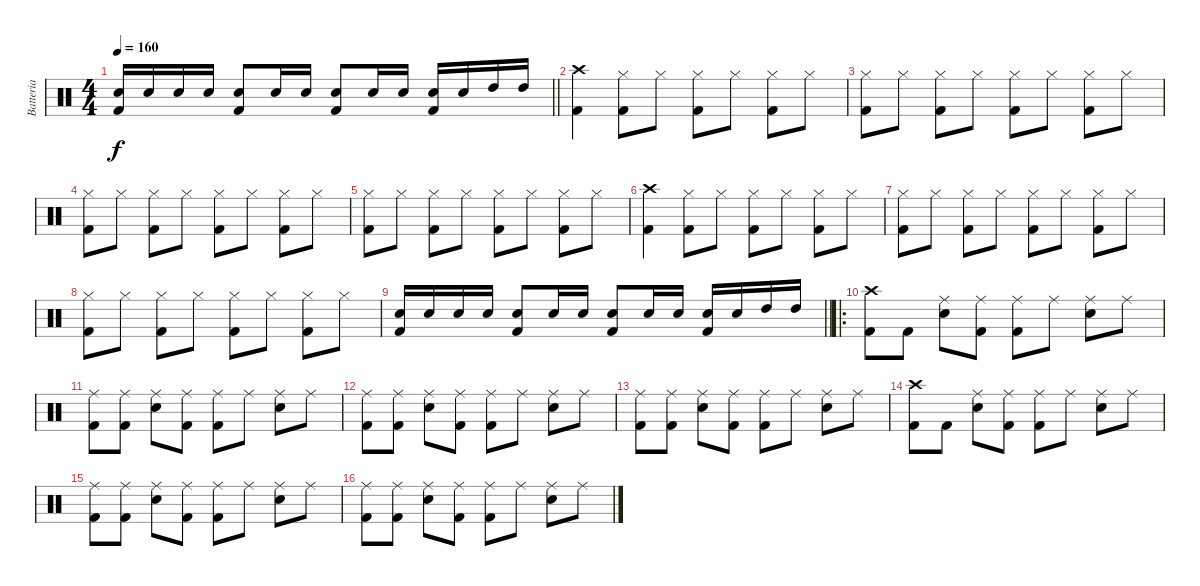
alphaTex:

\track ("Batteria" "Batteria") {instrument percussion}
\staff {score}
\articulation defaults
\ts (4 4)
\tempo 160
\clef neutral
\barLineRight lightlight
\ks c
("Electric Snare (hit)" "Kick (hit) 2").16{dy f} "Electric Snare (hit)".16 "Electric Snare (hit)".16 "Electric Snare (hit)".16 ("Electric Snare (hit)" "Kick (hit) 2").8 "Electric Snare (hit)".16 "Electric Snare (hit)".16 ("Electric Snare (hit)" "Kick (hit) 2").8 "Electric Snare (hit)".16 "Electric Snare (hit)".16 ("Electric Snare (hit)" "Kick (hit) 2").16 "Electric Snare (hit)".16 "High Tom (hit)".16 "High Tom (hit)".16 |
("Crash high (hit)" "Kick (hit) 2").4 ("Hi-Hat (closed)" "Kick (hit) 2").8 "Hi-Hat (closed)".8 ("Hi-Hat (closed)" "Kick (hit) 2").8 "Hi-Hat (closed)".8 ("Hi-Hat (closed)" "Kick (hit) 2").8 "Hi-Hat (closed)".8 |
("Hi-Hat (closed)" "Kick (hit) 2").8 "Hi-Hat (closed)".8 ("Hi-Hat (closed)" "Kick (hit) 2").8 "Hi-Hat (closed)".8 ("Hi-Hat (closed)" "Kick (hit) 2").8 "Hi-Hat (closed)".8 ("Hi-Hat (closed)" "Kick (hit) 2").8 "Hi-Hat (closed)".8 |
("Hi-Hat (closed)" "Kick (hit) 2").8 "Hi-Hat (closed)".8 ("Hi-Hat (closed)" "Kick (hit) 2").8 "Hi-Hat (closed)".8 ("Hi-Hat (closed)" "Kick (hit) 2").8 "Hi-Hat (closed)".8 ("Hi-Hat (closed)" "Kick (hit) 2").8 "Hi-Hat (closed)".8 |
("Hi-Hat (closed)" "Kick (hit) 2").8 "Hi-Hat (closed)".8 ("Hi-Hat (closed)" "Kick (hit) 2").8 "Hi-Hat (closed)".8 ("Hi-Hat (closed)" "Kick (hit) 2").8 "Hi-Hat (closed)".8 ("Hi-Hat (closed)" "Kick (hit) 2").8 "Hi-Hat (closed)".8 |
("Crash high (hit)" "Kick (hit) 2").4 ("Hi-Hat (closed)" "Kick (hit) 2").8 "Hi-Hat (closed)".8 ("Hi-Hat (closed)" "Kick (hit) 2").8 "Hi-Hat (closed)".8 ("Hi-Hat (closed)" "Kick (hit) 2").8 "Hi-Hat (closed)".8 |
("Hi-Hat (closed)" "Kick (hit) 2").8 "Hi-Hat (closed)".8 ("Hi-Hat (closed)" "Kick (hit) 2").8 "Hi-Hat (closed)".8 ("Hi-Hat (closed)" "Kick (hit) 2").8 "Hi-Hat (closed)".8 ("Hi-Hat (closed)" "Kick (hit) 2").8 "Hi-Hat (closed)".8 |
("Hi-Hat (closed)" "Kick (hit) 2").8 "Hi-Hat (closed)".8 ("Hi-Hat (closed)" "Kick (hit) 2").8 "Hi-Hat (closed)".8 ("Hi-Hat (closed)" "Kick (hit) 2").8 "Hi-Hat (closed)".8 ("Hi-Hat (closed)" "Kick (hit) 2").8 "Hi-Hat (closed)".8 |
\barLineRight lightlight
("Electric Snare (hit)" "Kick (hit) 2").16 "Electric Snare (hit)".16 "Electric Snare (hit)".16 "Electric Snare (hit)".16 ("Electric Snare (hit)" "Kick (hit) 2").8 "Electric Snare (hit)".16 "Electric Snare (hit)".16 ("Electric Snare (hit)" "Kick (hit) 2").8 "Electric Snare (hit)".16 "Electric Snare (hit)".16 ("Electric Snare (hit)" "Kick (hit) 2").16 "Electric Snare (hit)".16 "High Tom (hit)".16 "High Tom (hit)".16 |
\ro
("Crash high (hit)" "Kick (hit) 2").8 "Kick (hit) 2".8 ("Ride (middle)" "Electric Snare (hit)").8 ("Ride (middle)" "Kick (hit) 2").8 ("Ride (middle)" "Kick (hit) 2").8 "Ride (middle)".8 ("Ride (middle)" "Electric Snare (hit)").8 "Ride (middle)".8 |
("Ride (middle)" "Kick (hit) 2").8 ("Ride (middle)" "Kick (hit) 2").8 ("Ride (middle)" "Electric Snare (hit)").8 ("Ride (middle)" "Kick (hit) 2").8 ("Ride (middle)" "Kick (hit) 2").8 "Ride (middle)".8 ("Ride (middle)" "Electric Snare (hit)").8 "Ride (middle)".8 |
("Ride (middle)" "Kick (hit) 2").8 ("Ride (middle)" "Kick (hit) 2").8 ("Ride (middle)" "Electric Snare (hit)").8 ("Ride (middle)" "Kick (hit) 2").8 ("Ride (middle)" "Kick (hit) 2").8 "Ride (middle)".8 ("Ride (middle)" "Electric Snare (hit)").8 "Ride (middle)".8 |
("Ride (middle)" "Kick (hit) 2").8 ("Ride (middle)" "Kick (hit) 2").8 ("Ride (middle)" "Electric Snare (hit)").8 ("Ride (middle)" "Kick (hit) 2").8 ("Ride (middle)" "Kick (hit) 2").8 "Ride (middle)".8 ("Ride (middle)" "Electric Snare (hit)").8 "Ride (middle)".8 |
("Crash high (hit)" "Kick (hit) 2").8 "Kick (hit) 2".8 ("Ride (middle)" "Electric Snare (hit)").8 ("Ride (middle)" "Kick (hit) 2").8 ("Ride (middle)" "Kick (hit) 2").8 "Ride (middle)".8 ("Ride (middle)" "Electric Snare (hit)").8 "Ride (middle)".8 |
("Ride (middle)" "Kick (hit) 2").8 ("Ride (middle)" "Kick (hit) 2").8 ("Ride (middle)" "Electric Snare (hit)").8 ("Ride (middle)" "Kick (hit) 2").8 ("Ride (middle)" "Kick (hit) 2").8 "Ride (middle)".8 ("Ride (middle)" "Electric Snare (hit)").8 "Ride (middle)".8 |
("Ride (middle)" "Kick (hit) 2").8 ("Ride (middle)" "Kick (hit) 2").8 ("Ride (middle)" "Electric Snare (hit)").8 ("Ride (middle)" "Kick (hit) 2").8 ("Ride (middle)" "Kick (hit) 2").8 "Ride (middle)".8 ("Ride (middle)" "Electric Snare (hit)").8 "Ride (middle)".8
